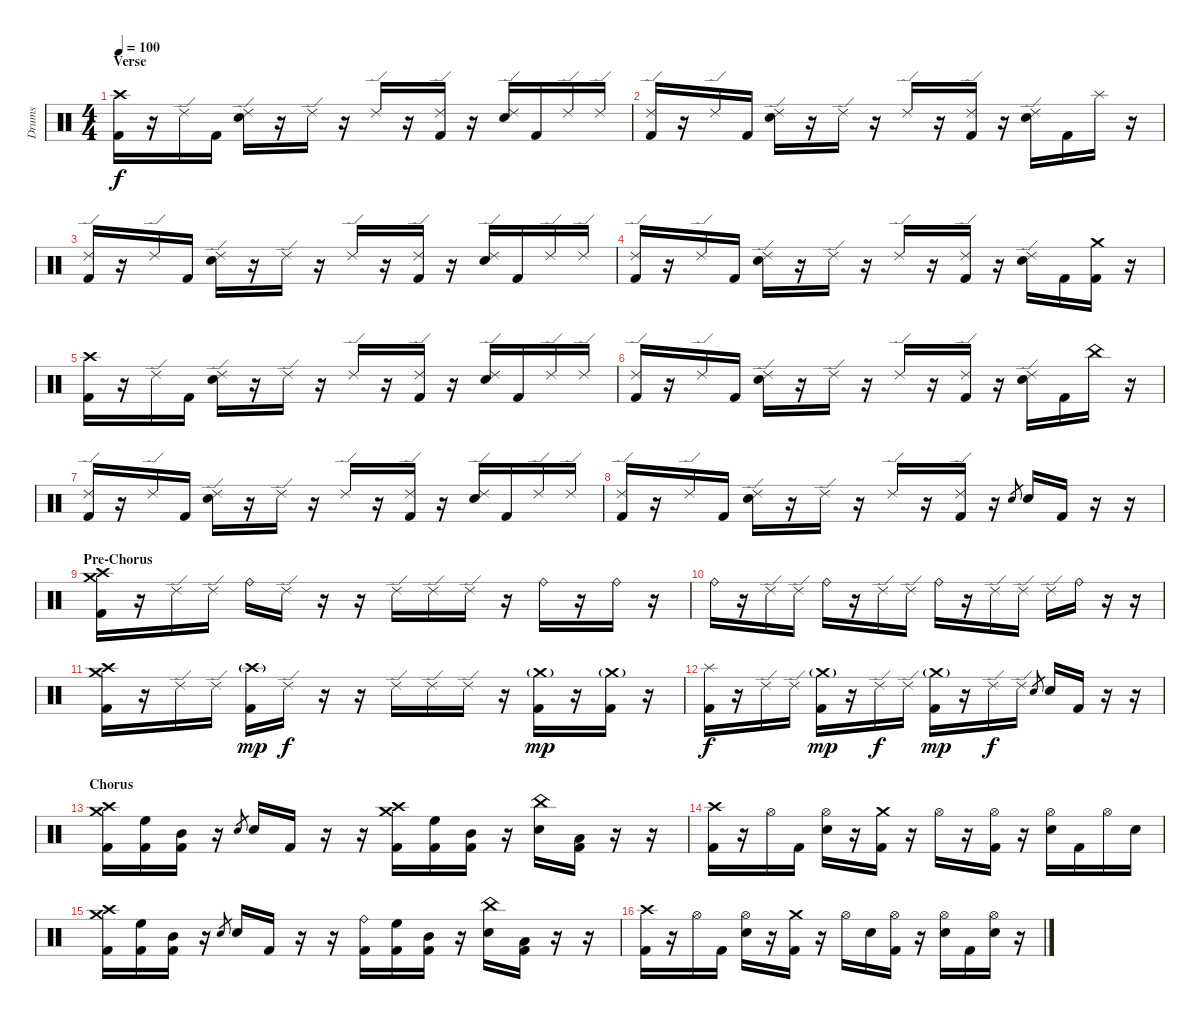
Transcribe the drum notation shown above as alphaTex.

\track ("Drums" "Drums") {instrument percussion}
\staff {score}
\articulation defaults
\ts (4 4)
\section ("" "Verse")
\tempo 100
\clef neutral
\ks c
("Crash high (hit)" "Kick (hit) 2").16{dy f} r.16 "Ride (edge) 2".16 "Kick (hit) 2".16 ("Ride (edge) 2" "Electric Snare (hit)").16 r.16 "Ride (edge) 2".16 r.16 "Ride (edge) 2".16 r.16 ("Ride (edge) 2" "Kick (hit) 2").16 r.16 ("Ride (edge) 2" "Electric Snare (hit)").16 "Kick (hit) 2".16 "Ride (edge) 2".16 "Ride (edge) 2".16 |
("Ride (edge) 2" "Kick (hit) 2").16 r.16 "Ride (edge) 2".16 "Kick (hit) 2".16 ("Ride (edge) 2" "Electric Snare (hit)").16 r.16 "Ride (edge) 2".16 r.16 "Ride (edge) 2".16 r.16 ("Ride (edge) 2" "Kick (hit) 2").16 r.16 ("Ride (edge) 2" "Electric Snare (hit)").16 "Kick (hit) 2".16 "Splash (hit)".16 r.16 |
("Ride (edge) 2" "Kick (hit) 2").16 r.16 "Ride (edge) 2".16 "Kick (hit) 2".16 ("Ride (edge) 2" "Electric Snare (hit)").16 r.16 "Ride (edge) 2".16 r.16 "Ride (edge) 2".16 r.16 ("Ride (edge) 2" "Kick (hit) 2").16 r.16 ("Ride (edge) 2" "Electric Snare (hit)").16 "Kick (hit) 2".16 "Ride (edge) 2".16 "Ride (edge) 2".16 |
("Ride (edge) 2" "Kick (hit) 2").16 r.16 "Ride (edge) 2".16 "Kick (hit) 2".16 ("Ride (edge) 2" "Electric Snare (hit)").16 r.16 "Ride (edge) 2".16 r.16 "Ride (edge) 2".16 r.16 ("Ride (edge) 2" "Kick (hit) 2").16 r.16 ("Ride (edge) 2" "Electric Snare (hit)").16 "Kick (hit) 2".16 ("Crash medium (hit)" "Kick (hit) 2").16 r.16 |
("Crash high (hit)" "Kick (hit) 2").16 r.16 "Ride (edge) 2".16 "Kick (hit) 2".16 ("Ride (edge) 2" "Electric Snare (hit)").16 r.16 "Ride (edge) 2".16 r.16 "Ride (edge) 2".16 r.16 ("Ride (edge) 2" "Kick (hit) 2").16 r.16 ("Ride (edge) 2" "Electric Snare (hit)").16 "Kick (hit) 2".16 "Ride (edge) 2".16 "Ride (edge) 2".16 |
("Ride (edge) 2" "Kick (hit) 2").16 r.16 "Ride (edge) 2".16 "Kick (hit) 2".16 ("Ride (edge) 2" "Electric Snare (hit)").16 r.16 "Ride (edge) 2".16 r.16 "Ride (edge) 2".16 r.16 ("Ride (edge) 2" "Kick (hit) 2").16 r.16 ("Ride (edge) 2" "Electric Snare (hit)").16 "Kick (hit) 2".16 "China (hit)".16 r.16 |
("Ride (edge) 2" "Kick (hit) 2").16 r.16 "Ride (edge) 2".16 "Kick (hit) 2".16 ("Ride (edge) 2" "Electric Snare (hit)").16 r.16 "Ride (edge) 2".16 r.16 "Ride (edge) 2".16 r.16 ("Ride (edge) 2" "Kick (hit) 2").16 r.16 ("Ride (edge) 2" "Electric Snare (hit)").16 "Kick (hit) 2".16 "Ride (edge) 2".16 "Ride (edge) 2".16 |
("Ride (edge) 2" "Kick (hit) 2").16 r.16 "Ride (edge) 2".16 "Kick (hit) 2".16 ("Ride (edge) 2" "Electric Snare (hit)").16 r.16 "Ride (edge) 2".16 r.16 "Ride (edge) 2".16 r.16 ("Ride (edge) 2" "Kick (hit) 2").16 r.16 "Electric Snare (hit)".8{gr} "Electric Snare (hit)".16 "Kick (hit) 2".16 r.16 r.16 |
\section ("" "Pre-Chorus")
("Crash high (hit)" "Crash medium (hit)" "Kick (hit) 2").16 r.16 "Ride (edge) 2".16 "Ride (edge) 2".16 "Ride (bell)".16 "Ride (edge) 2".16 r.16 r.16 "Ride (edge) 2".16 "Ride (edge) 2".16 "Ride (edge) 2".16 r.16 "Ride (bell)".16 r.16 "Ride (bell)".16 r.16 |
"Ride (bell)".16 r.16 "Ride (edge) 2".16 "Ride (edge) 2".16 "Ride (bell)".16 r.16 "Ride (edge) 2".16 "Ride (edge) 2".16 "Ride (bell)".16 r.16 "Ride (edge) 2".16 "Ride (edge) 2".16 "Ride (edge) 2".16 "Ride (bell)".16 r.16 r.16 |
("Crash high (hit)" "Crash medium (hit)" "Kick (hit) 2").16 r.16 "Ride (edge) 2".16 "Ride (edge) 2".16 ("Crash high (hit)"{g} "Kick (hit) 2").16{dy mp} "Ride (edge) 2".16{dy f} r.16 r.16 "Ride (edge) 2".16 "Ride (edge) 2".16 "Ride (edge) 2".16 r.16 ("Crash medium (hit)"{g} "Kick (hit) 2").16{dy mp} r.16 ("Crash medium (hit)"{g} "Kick (hit) 2").16 r.16 |
("Splash (hit)" "Kick (hit) 2").16{dy f} r.16 "Ride (edge) 2".16 "Ride (edge) 2".16 ("Crash medium (hit)"{g} "Kick (hit) 2").16{dy mp} r.16 "Ride (edge) 2".16{dy f} "Ride (edge) 2".16 ("Crash medium (hit)"{g} "Kick (hit) 2").16{dy mp} r.16 "Ride (edge) 2".16{dy f} "Ride (edge) 2".16 "Electric Snare (hit)".8{gr} "Electric Snare (hit)".16 "Kick (hit) 2".16 r.16 r.16 |
\section ("" "Chorus")
("Crash medium (hit)" "Crash high (hit)" "Kick (hit) 2").16 ("High Floor Tom (hit)" "Kick (hit) 2").16 ("Mid Tom (hit)" "Kick (hit) 2").16 r.16 "Electric Snare (hit)".8{gr} "Electric Snare (hit)".16 "Kick (hit) 2".16 r.16 r.16 ("Crash medium (hit)" "Crash high (hit)" "Kick (hit) 2").16 ("High Floor Tom (hit)" "Kick (hit) 2").16 ("Mid Tom (hit)" "Kick (hit) 2").16 r.16 ("China (hit)" "Electric Snare (hit)").16 ("Low Tom (hit)" "Kick (hit) 2").16 r.16 r.16 |
("Crash high (hit)" "Kick (hit) 2").16 r.16 "Hi-Hat (open)".16 "Kick (hit) 2".16 ("Hi-Hat (open)" "Electric Snare (hit)").16 r.16 ("Crash medium (hit)" "Kick (hit) 2").16 r.16 "Hi-Hat (open)".16 r.16 ("Hi-Hat (open)" "Kick (hit) 2").16 r.16 ("Hi-Hat (open)" "Electric Snare (hit)").16 "Kick (hit) 2".16 "Hi-Hat (open)".16 "Electric Snare (hit)".16 |
("Crash medium (hit)" "Crash high (hit)" "Kick (hit) 2").16 ("High Floor Tom (hit)" "Kick (hit) 2").16 ("Mid Tom (hit)" "Kick (hit) 2").16 r.16 "Electric Snare (hit)".8{gr} "Electric Snare (hit)".16 "Kick (hit) 2".16 r.16 r.16 ("Ride (bell)" "Kick (hit) 2").16 ("High Floor Tom (hit)" "Kick (hit) 2").16 ("Mid Tom (hit)" "Kick (hit) 2").16 r.16 ("China (hit)" "Electric Snare (hit)").16 ("Low Tom (hit)" "Kick (hit) 2").16 r.16 r.16 |
("Crash high (hit)" "Kick (hit) 2").16 r.16 "Hi-Hat (open)".16 "Kick (hit) 2".16 ("Hi-Hat (open)" "Electric Snare (hit)").16 r.16 ("Crash medium (hit)" "Kick (hit) 2").16 r.16 "Hi-Hat (open)".16 "Electric Snare (hit)".16 ("Hi-Hat (open)" "Kick (hit) 2").16 r.16 ("Hi-Hat (open)" "Electric Snare (hit)").16 "Kick (hit) 2".16 ("Hi-Hat (open)" "Electric Snare (hit)").16 r.16
